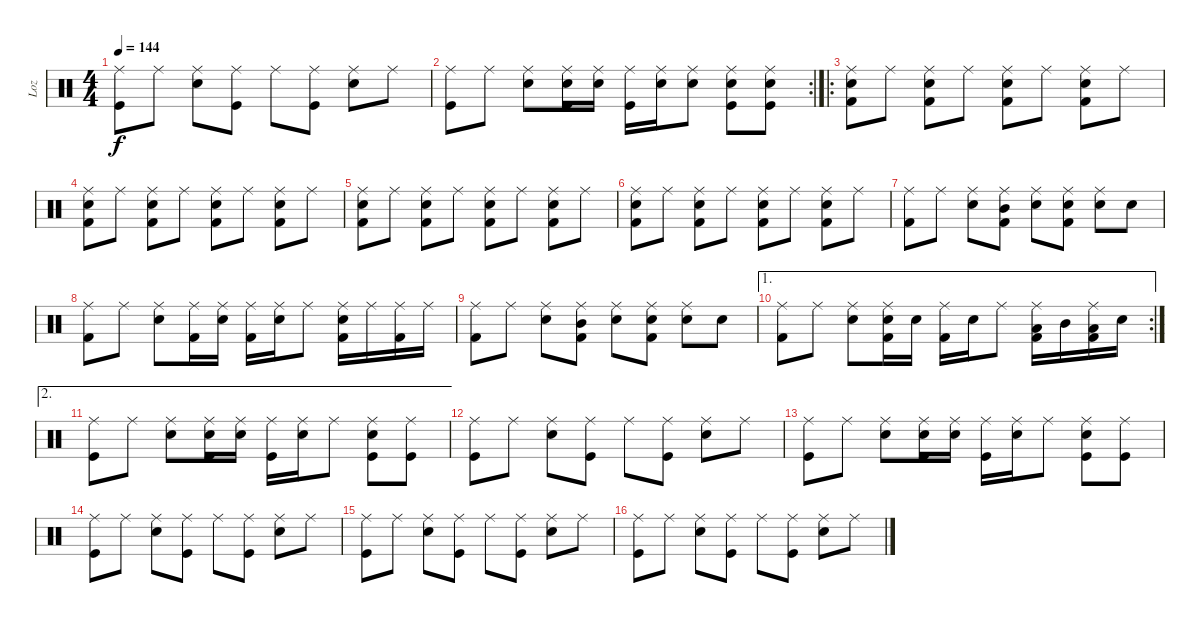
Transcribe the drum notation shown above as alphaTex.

\track ("Loz" "Loz") {instrument percussion}
\staff {score}
\articulation defaults
\ts (4 4)
\tempo 144
\clef neutral
\ks c
("Ride (middle)" "Kick (hit)").8{dy f} "Ride (middle)".8 ("Ride (middle)" "Electric Snare (hit)").8 ("Ride (middle)" "Kick (hit)").8 "Ride (middle)".8 ("Ride (middle)" "Kick (hit)").8 ("Ride (middle)" "Electric Snare (hit)").8 "Ride (middle)".8 |
\rc 2
("Ride (middle)" "Kick (hit)").8 "Ride (middle)".8 ("Ride (middle)" "Electric Snare (hit)").8 ("Ride (middle)" "Electric Snare (hit)" "Kick (hit)").16 ("Ride (middle)" "Electric Snare (hit)").16 ("Ride (middle)" "Kick (hit)").16 ("Ride (middle)" "Electric Snare (hit)").16 ("Ride (middle)" "Electric Snare (hit)").8 ("Ride (middle)" "Electric Snare (hit)" "Kick (hit)").8 ("Ride (middle)" "Electric Snare (hit)" "Kick (hit)").8 |
\ro
("Ride (middle)" "Electric Snare (hit)" "Kick (hit) 2").8 "Ride (middle)".8 ("Ride (middle)" "Electric Snare (hit)" "Kick (hit) 2").8 "Ride (middle)".8 ("Ride (middle)" "Electric Snare (hit)" "Kick (hit) 2").8 "Ride (middle)".8 ("Ride (middle)" "Electric Snare (hit)" "Kick (hit) 2").8 "Ride (middle)".8 |
("Ride (middle)" "Electric Snare (hit)" "Kick (hit) 2").8 "Ride (middle)".8 ("Ride (middle)" "Electric Snare (hit)" "Kick (hit) 2").8 "Ride (middle)".8 ("Ride (middle)" "Electric Snare (hit)" "Kick (hit) 2").8 "Ride (middle)".8 ("Ride (middle)" "Electric Snare (hit)" "Kick (hit) 2").8 "Ride (middle)".8 |
("Ride (middle)" "Electric Snare (hit)" "Kick (hit) 2").8 "Ride (middle)".8 ("Ride (middle)" "Electric Snare (hit)" "Kick (hit) 2").8 "Ride (middle)".8 ("Ride (middle)" "Electric Snare (hit)" "Kick (hit) 2").8 "Ride (middle)".8 ("Ride (middle)" "Electric Snare (hit)" "Kick (hit) 2").8 "Ride (middle)".8 |
("Ride (middle)" "Electric Snare (hit)" "Kick (hit) 2").8 "Ride (middle)".8 ("Ride (middle)" "Electric Snare (hit)" "Kick (hit) 2").8 "Ride (middle)".8 ("Ride (middle)" "Electric Snare (hit)" "Kick (hit) 2").8 "Ride (middle)".8 ("Ride (middle)" "Electric Snare (hit)" "Kick (hit) 2").8 "Ride (middle)".8 |
("Ride (middle)" "Kick (hit) 2").8 "Ride (middle)".8 ("Ride (middle)" "Electric Snare (hit)").8 ("Ride (middle)" "Mid Tom (hit)" "Kick (hit) 2").8 ("Ride (middle)" "Electric Snare (hit)").8 ("Ride (middle)" "Electric Snare (hit)" "Kick (hit) 2").8 ("Ride (middle)" "Electric Snare (hit)").8 "Electric Snare (hit)".8 |
("Ride (middle)" "Kick (hit) 2").8 "Ride (middle)".8 ("Ride (middle)" "Electric Snare (hit)").8 ("Ride (middle)" "Kick (hit) 2").16 ("Ride (middle)" "Electric Snare (hit)").16 ("Ride (middle)" "Kick (hit) 2").16 ("Ride (middle)" "Electric Snare (hit)").16 "Ride (middle)".8 ("Ride (middle)" "Electric Snare (hit)" "Kick (hit) 2").16 "Ride (middle)".16 ("Ride (middle)" "Kick (hit) 2").16 "Ride (middle)".16 |
("Ride (middle)" "Kick (hit) 2").8 "Ride (middle)".8 ("Ride (middle)" "Electric Snare (hit)").8 ("Ride (middle)" "Mid Tom (hit)" "Kick (hit) 2").8 ("Ride (middle)" "Electric Snare (hit)").8 ("Ride (middle)" "Electric Snare (hit)" "Kick (hit) 2").8 ("Ride (middle)" "Electric Snare (hit)").8 "Electric Snare (hit)".8 |
\ae 1
\rc 2
("Ride (middle)" "Kick (hit) 2").8 "Ride (middle)".8 ("Ride (middle)" "Electric Snare (hit)").8 ("Ride (middle)" "Electric Snare (hit)" "Kick (hit) 2").16 "Electric Snare (hit)".16 ("Ride (middle)" "Kick (hit) 2").16 "Electric Snare (hit)".16 "Ride (middle)".8 ("Ride (middle)" "Low Tom (hit)" "Kick (hit) 2").16 "Mid Tom (hit)".16 ("Ride (middle)" "Low Tom (hit)" "Kick (hit) 2").16 "Electric Snare (hit)".16 |
\ae 2
("Ride (middle)" "Kick (hit)").8 "Ride (middle)".8 ("Ride (middle)" "Electric Snare (hit)").8 ("Ride (middle)" "Electric Snare (hit)" "Kick (hit)").16 ("Ride (middle)" "Electric Snare (hit)").16 ("Ride (middle)" "Kick (hit)").16 ("Ride (middle)" "Electric Snare (hit)").16 "Ride (middle)".8 ("Ride (middle)" "Electric Snare (hit)" "Kick (hit)").8 ("Ride (middle)" "Kick (hit)").8 |
("Ride (middle)" "Kick (hit)").8 "Ride (middle)".8 ("Ride (middle)" "Electric Snare (hit)").8 ("Ride (middle)" "Kick (hit)").8 "Ride (middle)".8 ("Ride (middle)" "Kick (hit)").8 ("Ride (middle)" "Electric Snare (hit)").8 "Ride (middle)".8 |
("Ride (middle)" "Kick (hit)").8 "Ride (middle)".8 ("Ride (middle)" "Electric Snare (hit)").8 ("Ride (middle)" "Electric Snare (hit)" "Kick (hit)").16 ("Ride (middle)" "Electric Snare (hit)").16 ("Ride (middle)" "Kick (hit)").16 ("Ride (middle)" "Electric Snare (hit)").16 "Ride (middle)".8 ("Ride (middle)" "Electric Snare (hit)" "Kick (hit)").8 ("Ride (middle)" "Kick (hit)").8 |
("Ride (middle)" "Kick (hit)").8 "Ride (middle)".8 ("Ride (middle)" "Electric Snare (hit)").8 ("Ride (middle)" "Kick (hit)").8 "Ride (middle)".8 ("Ride (middle)" "Kick (hit)").8 ("Ride (middle)" "Electric Snare (hit)").8 "Ride (middle)".8 |
("Ride (middle)" "Kick (hit)").8 "Ride (middle)".8 ("Ride (middle)" "Electric Snare (hit)").8 ("Ride (middle)" "Kick (hit)").8 "Ride (middle)".8 ("Ride (middle)" "Kick (hit)").8 ("Ride (middle)" "Electric Snare (hit)").8 "Ride (middle)".8 |
("Ride (middle)" "Kick (hit)").8 "Ride (middle)".8 ("Ride (middle)" "Electric Snare (hit)").8 ("Ride (middle)" "Kick (hit)").8 "Ride (middle)".8 ("Ride (middle)" "Kick (hit)").8 ("Ride (middle)" "Electric Snare (hit)").8 "Ride (middle)".8
